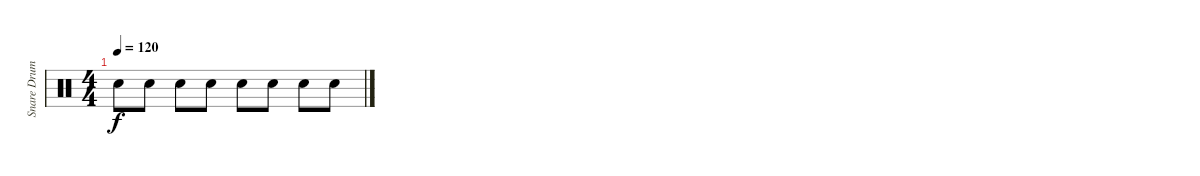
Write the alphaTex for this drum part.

\track ("Snare Drum" "Snare Drum") {instrument percussion}
\staff {score}
\articulation defaults
\ts (4 4)
\tempo 120
\clef neutral
\ks c "Snare (hit) 2".8{dy f} "Snare (hit) 2".8 "Snare (hit) 2".8 "Snare (hit) 2".8 "Snare (hit) 2".8 "Snare (hit) 2".8 "Snare (hit) 2".8 "Snare (hit) 2".8
